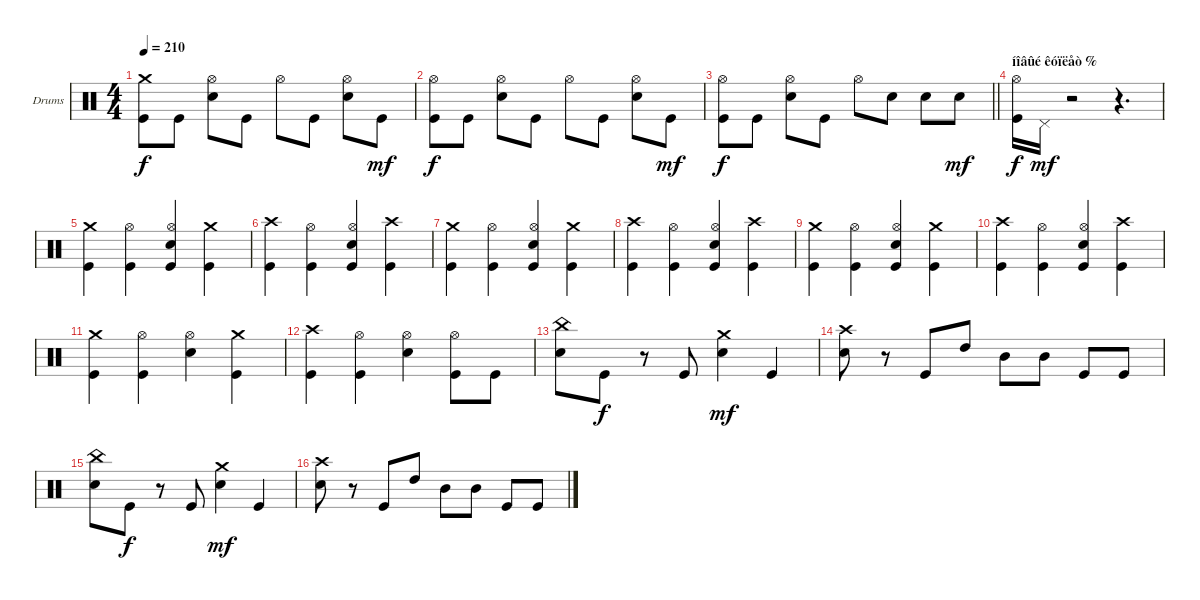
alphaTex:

\bracketExtendMode groupsimilarinstruments
\firstSystemTrackNameOrientation horizontal
\otherSystemsTrackNameOrientation horizontal
\track ("Drumkit" "Drums") {instrument percussion}
\staff {score}
\articulation defaults
\ts (4 4)
\tempo 210
\clef neutral
\ks c
("Crash medium (hit)" "Kick (hit)").8{dy f} "Kick (hit)".8 ("Hi-Hat (open)" "Snare (hit) 2").8 "Kick (hit)".8 "Hi-Hat (open)".8 "Kick (hit)".8 ("Hi-Hat (open)" "Snare (hit) 2").8 "Kick (hit)".8{dy mf} |
("Hi-Hat (open)" "Kick (hit)").8{dy f} "Kick (hit)".8 ("Hi-Hat (open)" "Snare (hit) 2").8 "Kick (hit)".8 "Hi-Hat (open)".8 "Kick (hit)".8 ("Hi-Hat (open)" "Snare (hit) 2").8 "Kick (hit)".8{dy mf} |
\barLineRight lightlight
("Hi-Hat (open)" "Kick (hit)").8{dy f} "Kick (hit)".8 ("Hi-Hat (open)" "Snare (hit) 2").8 "Kick (hit)".8 "Hi-Hat (open)".8 "Snare (hit) 2".8 "Snare (hit) 2".8 "Snare (hit) 2".8{dy mf} |
\section ("" "íîâûé êóïëåò %")
("Hi-Hat (open)" "Kick (hit)").16{dy f} "Pedal Hi-Hat (hit)".16{dy mf} r.2 r.4{d} |
("Crash medium (hit)" "Kick (hit)").4 ("Hi-Hat (open)" "Kick (hit)").4 ("Hi-Hat (open)" "Snare (hit) 2" "Kick (hit)").4 ("Crash medium (hit)" "Kick (hit)").4 |
("Kick (hit)" "Crash high (hit)").4 ("Hi-Hat (open)" "Kick (hit)").4 ("Hi-Hat (open)" "Snare (hit) 2" "Kick (hit)").4 ("Crash high (hit)" "Kick (hit)").4 |
("Crash medium (hit)" "Kick (hit)").4 ("Hi-Hat (open)" "Kick (hit)").4 ("Hi-Hat (open)" "Snare (hit) 2" "Kick (hit)").4 ("Crash medium (hit)" "Kick (hit)").4 |
("Kick (hit)" "Crash high (hit)").4 ("Hi-Hat (open)" "Kick (hit)").4 ("Hi-Hat (open)" "Snare (hit) 2" "Kick (hit)").4 ("Crash high (hit)" "Kick (hit)").4 |
("Crash medium (hit)" "Kick (hit)").4 ("Hi-Hat (open)" "Kick (hit)").4 ("Hi-Hat (open)" "Snare (hit) 2" "Kick (hit)").4 ("Crash medium (hit)" "Kick (hit)").4 |
("Kick (hit)" "Crash high (hit)").4 ("Hi-Hat (open)" "Kick (hit)").4 ("Hi-Hat (open)" "Snare (hit) 2" "Kick (hit)").4 ("Crash high (hit)" "Kick (hit)").4 |
("Kick (hit)" "Crash medium (hit)").4 ("Hi-Hat (open)" "Kick (hit)").4 ("Hi-Hat (open)" "Snare (hit) 2").4 ("Crash medium (hit)" "Kick (hit)").4 |
("Kick (hit)" "Crash high (hit)").4 ("Hi-Hat (open)" "Kick (hit)").4 ("Hi-Hat (open)" "Snare (hit) 2").4 ("Hi-Hat (open)" "Kick (hit)").8 "Kick (hit)".8 |
("China (hit)" "Snare (hit) 2").8 "Kick (hit)".8{dy f} r.8 "Kick (hit)".8 ("Crash medium (hit)" "Snare (hit) 2").4{dy mf} "Kick (hit)".4 |
("Crash high (hit)" "Snare (hit) 2").8 r.8 "Kick (hit)".8 "High Tom (hit)".8 "Mid Tom (hit)".8 "Mid Tom (hit)".8 "Kick (hit)".8 "Kick (hit)".8 |
("China (hit)" "Snare (hit) 2").8 "Kick (hit)".8{dy f} r.8 "Kick (hit)".8 ("Crash medium (hit)" "Snare (hit) 2").4{dy mf} "Kick (hit)".4 |
("Crash high (hit)" "Snare (hit) 2").8 r.8 "Kick (hit)".8 "High Tom (hit)".8 "Mid Tom (hit)".8 "Mid Tom (hit)".8 "Kick (hit)".8 "Kick (hit)".8
